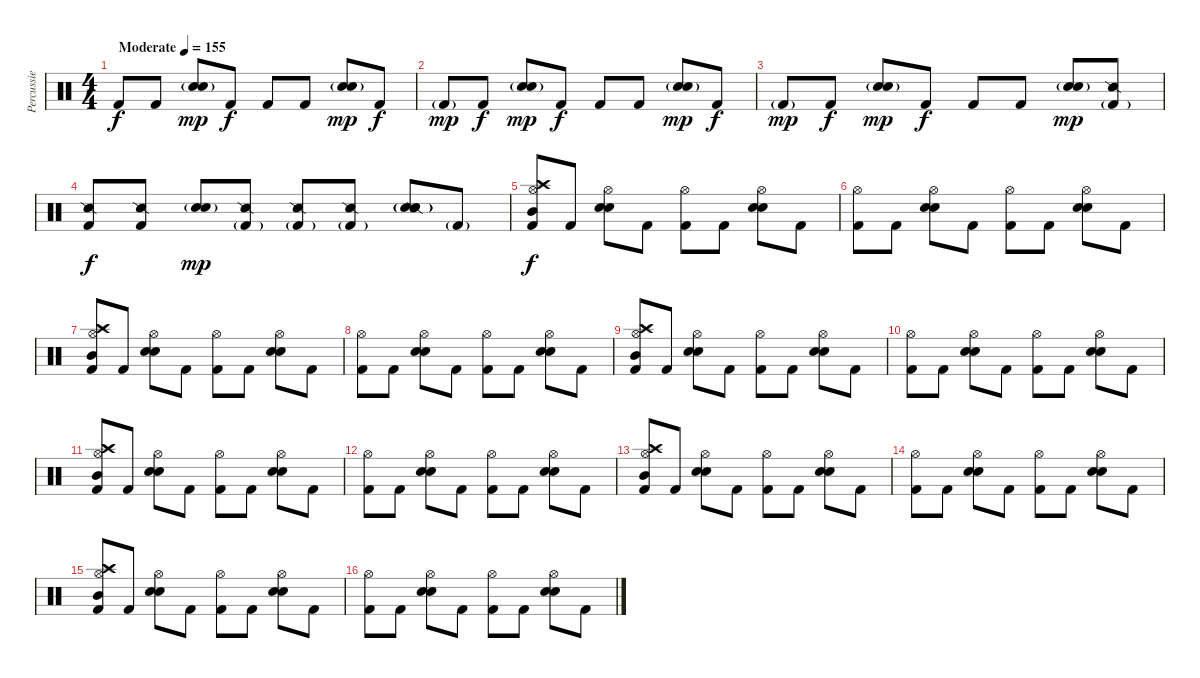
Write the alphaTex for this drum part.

\track ("Percussie" "Percussie") {instrument percussion}
\staff {score}
\articulation defaults
\ts (4 4)
\tempo (155 "Moderate")
\clef neutral
\ks c "Kick (hit) 2".8{dy f} "Kick (hit) 2".8
("Electric Snare (hit)"{g} "Snare (hit) 2"{g}).8{dy mp} "Kick (hit) 2".8{dy f} "Kick (hit) 2".8 "Kick (hit) 2".8 ("Electric Snare (hit)"{g} "Snare (hit) 2"{g}).8{dy mp} "Kick (hit) 2".8{dy f} |
"Kick (hit) 2"{g}.8{dy mp} "Kick (hit) 2".8{dy f} ("Electric Snare (hit)"{g} "Snare (hit) 2"{g}).8{dy mp} "Kick (hit) 2".8{dy f} "Kick (hit) 2".8 "Kick (hit) 2".8 ("Electric Snare (hit)"{g} "Snare (hit) 2"{g}).8{dy mp} "Kick (hit) 2".8{dy f} |
"Kick (hit) 2"{g}.8{dy mp} "Kick (hit) 2".8{dy f} ("Electric Snare (hit)"{g} "Snare (hit) 2"{g}).8{dy mp} "Kick (hit) 2".8{dy f} "Kick (hit) 2".8 "Kick (hit) 2".8 ("Electric Snare (hit)"{g} "Snare (hit) 2"{g}).8{dy mp} ("Snare (side stick) 2" "Kick (hit) 2"{g}).8 |
("Snare (side stick) 2" "Kick (hit) 2").8{dy f} ("Snare (side stick) 2" "Kick (hit) 2").8 ("Electric Snare (hit)"{g} "Snare (hit) 2"{g}).8{dy mp} ("Snare (side stick) 2" "Kick (hit) 2"{g}).8 ("Snare (side stick) 2" "Kick (hit) 2"{g}).8 ("Snare (side stick) 2" "Kick (hit) 2"{g}).8 ("Electric Snare (hit)"{g} "Snare (side stick) 2" "Snare (hit) 2"{g}).8 "Kick (hit) 2"{g}.8 |
("Hi-Hat (open)" "Crash high (hit)" "Splash (hit)" "Mid Tom (hit)" "Kick (hit) 2").8{dy f} "Kick (hit) 2".8 ("Hi-Hat (open)" "Electric Snare (hit)" "Snare (hit) 2").8 "Kick (hit) 2".8 ("Hi-Hat (open)" "Kick (hit) 2").8 "Kick (hit) 2".8 ("Hi-Hat (open)" "Electric Snare (hit)" "Snare (hit) 2").8 "Kick (hit) 2".8 |
("Hi-Hat (open)" "Kick (hit) 2").8 "Kick (hit) 2".8 ("Hi-Hat (open)" "Electric Snare (hit)" "Snare (hit) 2").8 "Kick (hit) 2".8 ("Hi-Hat (open)" "Kick (hit) 2").8 "Kick (hit) 2".8 ("Hi-Hat (open)" "Electric Snare (hit)" "Snare (hit) 2").8 "Kick (hit) 2".8 |
("Hi-Hat (open)" "Crash high (hit)" "Splash (hit)" "Mid Tom (hit)" "Kick (hit) 2").8 "Kick (hit) 2".8 ("Hi-Hat (open)" "Electric Snare (hit)" "Snare (hit) 2").8 "Kick (hit) 2".8 ("Hi-Hat (open)" "Kick (hit) 2").8 "Kick (hit) 2".8 ("Hi-Hat (open)" "Electric Snare (hit)" "Snare (hit) 2").8 "Kick (hit) 2".8 |
("Hi-Hat (open)" "Kick (hit) 2").8 "Kick (hit) 2".8 ("Hi-Hat (open)" "Electric Snare (hit)" "Snare (hit) 2").8 "Kick (hit) 2".8 ("Hi-Hat (open)" "Kick (hit) 2").8 "Kick (hit) 2".8 ("Hi-Hat (open)" "Electric Snare (hit)" "Snare (hit) 2").8 "Kick (hit) 2".8 |
("Hi-Hat (open)" "Crash high (hit)" "Splash (hit)" "Mid Tom (hit)" "Kick (hit) 2").8 "Kick (hit) 2".8 ("Hi-Hat (open)" "Electric Snare (hit)" "Snare (hit) 2").8 "Kick (hit) 2".8 ("Hi-Hat (open)" "Kick (hit) 2").8 "Kick (hit) 2".8 ("Hi-Hat (open)" "Electric Snare (hit)" "Snare (hit) 2").8 "Kick (hit) 2".8 |
("Hi-Hat (open)" "Kick (hit) 2").8 "Kick (hit) 2".8 ("Hi-Hat (open)" "Electric Snare (hit)" "Snare (hit) 2").8 "Kick (hit) 2".8 ("Hi-Hat (open)" "Kick (hit) 2").8 "Kick (hit) 2".8 ("Hi-Hat (open)" "Electric Snare (hit)" "Snare (hit) 2").8 "Kick (hit) 2".8 |
("Hi-Hat (open)" "Crash high (hit)" "Splash (hit)" "Mid Tom (hit)" "Kick (hit) 2").8 "Kick (hit) 2".8 ("Hi-Hat (open)" "Electric Snare (hit)" "Snare (hit) 2").8 "Kick (hit) 2".8 ("Hi-Hat (open)" "Kick (hit) 2").8 "Kick (hit) 2".8 ("Hi-Hat (open)" "Electric Snare (hit)" "Snare (hit) 2").8 "Kick (hit) 2".8 |
("Hi-Hat (open)" "Kick (hit) 2").8 "Kick (hit) 2".8 ("Hi-Hat (open)" "Electric Snare (hit)" "Snare (hit) 2").8 "Kick (hit) 2".8 ("Hi-Hat (open)" "Kick (hit) 2").8 "Kick (hit) 2".8 ("Hi-Hat (open)" "Electric Snare (hit)" "Snare (hit) 2").8 "Kick (hit) 2".8 |
("Hi-Hat (open)" "Crash high (hit)" "Splash (hit)" "Mid Tom (hit)" "Kick (hit) 2").8 "Kick (hit) 2".8 ("Hi-Hat (open)" "Electric Snare (hit)" "Snare (hit) 2").8 "Kick (hit) 2".8 ("Hi-Hat (open)" "Kick (hit) 2").8 "Kick (hit) 2".8 ("Hi-Hat (open)" "Electric Snare (hit)" "Snare (hit) 2").8 "Kick (hit) 2".8 |
("Hi-Hat (open)" "Kick (hit) 2").8 "Kick (hit) 2".8 ("Hi-Hat (open)" "Electric Snare (hit)" "Snare (hit) 2").8 "Kick (hit) 2".8 ("Hi-Hat (open)" "Kick (hit) 2").8 "Kick (hit) 2".8 ("Hi-Hat (open)" "Electric Snare (hit)" "Snare (hit) 2").8 "Kick (hit) 2".8 |
("Hi-Hat (open)" "Crash high (hit)" "Splash (hit)" "Mid Tom (hit)" "Kick (hit) 2").8 "Kick (hit) 2".8 ("Hi-Hat (open)" "Electric Snare (hit)" "Snare (hit) 2").8 "Kick (hit) 2".8 ("Hi-Hat (open)" "Kick (hit) 2").8 "Kick (hit) 2".8 ("Hi-Hat (open)" "Electric Snare (hit)" "Snare (hit) 2").8 "Kick (hit) 2".8 |
("Hi-Hat (open)" "Kick (hit) 2").8 "Kick (hit) 2".8 ("Hi-Hat (open)" "Electric Snare (hit)" "Snare (hit) 2").8 "Kick (hit) 2".8 ("Hi-Hat (open)" "Kick (hit) 2").8 "Kick (hit) 2".8 ("Hi-Hat (open)" "Electric Snare (hit)" "Snare (hit) 2").8 "Kick (hit) 2".8
